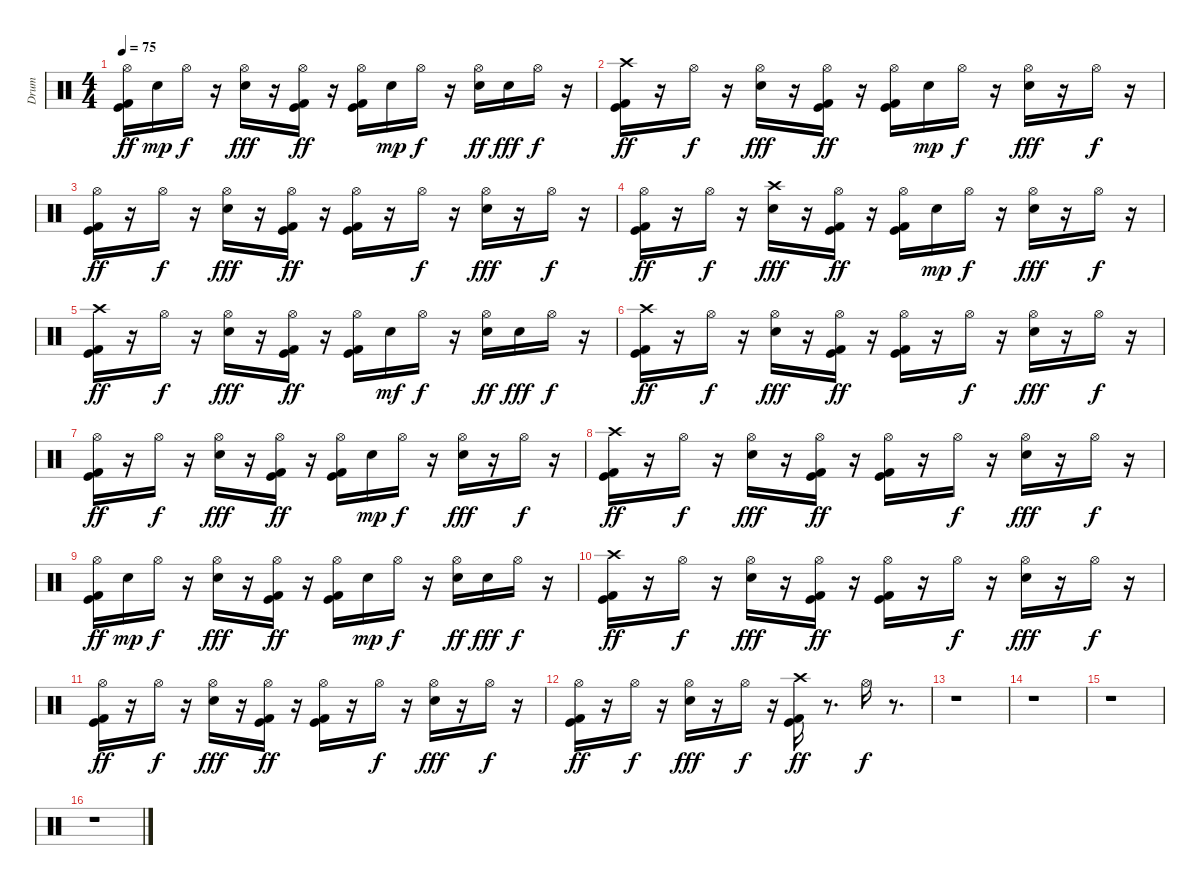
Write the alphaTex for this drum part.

\track ("Drum" "Drum") {instrument percussion}
\staff {score}
\articulation defaults
\ts (4 4)
\tempo 75
\clef neutral
\ks c
("Hi-Hat (open)" "Kick (hit)" "Kick (hit) 2").16{dy ff} "Electric Snare (hit)".16{dy mp} "Hi-Hat (open)".16{dy f} r.16 ("Hi-Hat (open)" "Electric Snare (hit)").16{dy fff} r.16 ("Hi-Hat (open)" "Kick (hit)" "Kick (hit) 2").16{dy ff} r.16 ("Hi-Hat (open)" "Kick (hit)" "Kick (hit) 2").16 "Electric Snare (hit)".16{dy mp} "Hi-Hat (open)".16{dy f} r.16 ("Hi-Hat (open)" "Electric Snare (hit)").16{dy ff} "Electric Snare (hit)".16{dy fff} "Hi-Hat (open)".16{dy f} r.16 |
("Crash high (hit)" "Kick (hit)" "Kick (hit) 2").16{dy ff} r.16 "Hi-Hat (open)".16{dy f} r.16 ("Hi-Hat (open)" "Electric Snare (hit)").16{dy fff} r.16 ("Hi-Hat (open)" "Kick (hit)" "Kick (hit) 2").16{dy ff} r.16 ("Hi-Hat (open)" "Kick (hit)" "Kick (hit) 2").16 "Electric Snare (hit)".16{dy mp} "Hi-Hat (open)".16{dy f} r.16 ("Hi-Hat (open)" "Electric Snare (hit)").16{dy fff} r.16 "Hi-Hat (open)".16{dy f} r.16 |
("Hi-Hat (open)" "Kick (hit)" "Kick (hit) 2").16{dy ff} r.16 "Hi-Hat (open)".16{dy f} r.16 ("Hi-Hat (open)" "Electric Snare (hit)").16{dy fff} r.16 ("Hi-Hat (open)" "Kick (hit)" "Kick (hit) 2").16{dy ff} r.16 ("Hi-Hat (open)" "Kick (hit)" "Kick (hit) 2").16 r.16 "Hi-Hat (open)".16{dy f} r.16 ("Hi-Hat (open)" "Electric Snare (hit)").16{dy fff} r.16 "Hi-Hat (open)".16{dy f} r.16 |
("Kick (hit) 2" "Hi-Hat (open)" "Kick (hit)").16{dy ff} r.16 "Hi-Hat (open)".16{dy f} r.16 ("Electric Snare (hit)" "Crash high (hit)").16{dy fff} r.16 ("Hi-Hat (open)" "Kick (hit)" "Kick (hit) 2").16{dy ff} r.16 ("Hi-Hat (open)" "Kick (hit)" "Kick (hit) 2").16 "Electric Snare (hit)".16{dy mp} "Hi-Hat (open)".16{dy f} r.16 ("Hi-Hat (open)" "Electric Snare (hit)").16{dy fff} r.16 "Hi-Hat (open)".16{dy f} r.16 |
("Kick (hit)" "Kick (hit) 2" "Crash high (hit)").16{dy ff} r.16 "Hi-Hat (open)".16{dy f} r.16 ("Electric Snare (hit)" "Hi-Hat (open)").16{dy fff} r.16 ("Hi-Hat (open)" "Kick (hit)" "Kick (hit) 2").16{dy ff} r.16 ("Hi-Hat (open)" "Kick (hit)" "Kick (hit) 2").16 "Electric Snare (hit)".16{dy mf} "Hi-Hat (open)".16{dy f} r.16 ("Hi-Hat (open)" "Electric Snare (hit)").16{dy ff} "Electric Snare (hit)".16{dy fff} "Hi-Hat (open)".16{dy f} r.16 |
("Crash high (hit)" "Kick (hit)" "Kick (hit) 2").16{dy ff} r.16 "Hi-Hat (open)".16{dy f} r.16 ("Hi-Hat (open)" "Electric Snare (hit)").16{dy fff} r.16 ("Hi-Hat (open)" "Kick (hit)" "Kick (hit) 2").16{dy ff} r.16 ("Hi-Hat (open)" "Kick (hit)" "Kick (hit) 2").16 r.16 "Hi-Hat (open)".16{dy f} r.16 ("Hi-Hat (open)" "Electric Snare (hit)").16{dy fff} r.16 "Hi-Hat (open)".16{dy f} r.16 |
("Hi-Hat (open)" "Kick (hit)" "Kick (hit) 2").16{dy ff} r.16 "Hi-Hat (open)".16{dy f} r.16 ("Hi-Hat (open)" "Electric Snare (hit)").16{dy fff} r.16 ("Hi-Hat (open)" "Kick (hit)" "Kick (hit) 2").16{dy ff} r.16 ("Hi-Hat (open)" "Kick (hit)" "Kick (hit) 2").16 "Electric Snare (hit)".16{dy mp} "Hi-Hat (open)".16{dy f} r.16 ("Hi-Hat (open)" "Electric Snare (hit)").16{dy fff} r.16 "Hi-Hat (open)".16{dy f} r.16 |
("Crash high (hit)" "Kick (hit)" "Kick (hit) 2").16{dy ff} r.16 "Hi-Hat (open)".16{dy f} r.16 ("Hi-Hat (open)" "Electric Snare (hit)").16{dy fff} r.16 ("Hi-Hat (open)" "Kick (hit)" "Kick (hit) 2").16{dy ff} r.16 ("Hi-Hat (open)" "Kick (hit)" "Kick (hit) 2").16 r.16 "Hi-Hat (open)".16{dy f} r.16 ("Hi-Hat (open)" "Electric Snare (hit)").16{dy fff} r.16 "Hi-Hat (open)".16{dy f} r.16 |
("Hi-Hat (open)" "Kick (hit)" "Kick (hit) 2").16{dy ff} "Electric Snare (hit)".16{dy mp} "Hi-Hat (open)".16{dy f} r.16 ("Hi-Hat (open)" "Electric Snare (hit)").16{dy fff} r.16 ("Hi-Hat (open)" "Kick (hit)" "Kick (hit) 2").16{dy ff} r.16 ("Hi-Hat (open)" "Kick (hit)" "Kick (hit) 2").16 "Electric Snare (hit)".16{dy mp} "Hi-Hat (open)".16{dy f} r.16 ("Hi-Hat (open)" "Electric Snare (hit)").16{dy ff} "Electric Snare (hit)".16{dy fff} "Hi-Hat (open)".16{dy f} r.16 |
("Crash high (hit)" "Kick (hit)" "Kick (hit) 2").16{dy ff} r.16 "Hi-Hat (open)".16{dy f} r.16 ("Hi-Hat (open)" "Electric Snare (hit)").16{dy fff} r.16 ("Hi-Hat (open)" "Kick (hit)" "Kick (hit) 2").16{dy ff} r.16 ("Hi-Hat (open)" "Kick (hit)" "Kick (hit) 2").16 r.16 "Hi-Hat (open)".16{dy f} r.16 ("Hi-Hat (open)" "Electric Snare (hit)").16{dy fff} r.16 "Hi-Hat (open)".16{dy f} r.16 |
("Hi-Hat (open)" "Kick (hit)" "Kick (hit) 2").16{dy ff} r.16 "Hi-Hat (open)".16{dy f} r.16 ("Hi-Hat (open)" "Electric Snare (hit)").16{dy fff} r.16 ("Hi-Hat (open)" "Kick (hit)" "Kick (hit) 2").16{dy ff} r.16 ("Hi-Hat (open)" "Kick (hit)" "Kick (hit) 2").16 r.16 "Hi-Hat (open)".16{dy f} r.16 ("Hi-Hat (open)" "Electric Snare (hit)").16{dy fff} r.16 "Hi-Hat (open)".16{dy f} r.16 |
("Hi-Hat (open)" "Kick (hit)" "Kick (hit) 2").16{dy ff} r.16 "Hi-Hat (open)".16{dy f} r.16 ("Hi-Hat (open)" "Electric Snare (hit)").16{dy fff} r.16 "Hi-Hat (open)".16{dy f} r.16 ("Crash high (hit)" "Kick (hit)" "Kick (hit) 2").16{dy ff} r.8{d} "Hi-Hat (open)".16{dy f} r.8{d} |
r.1 |
r.1 |
r.1 |
r.1
